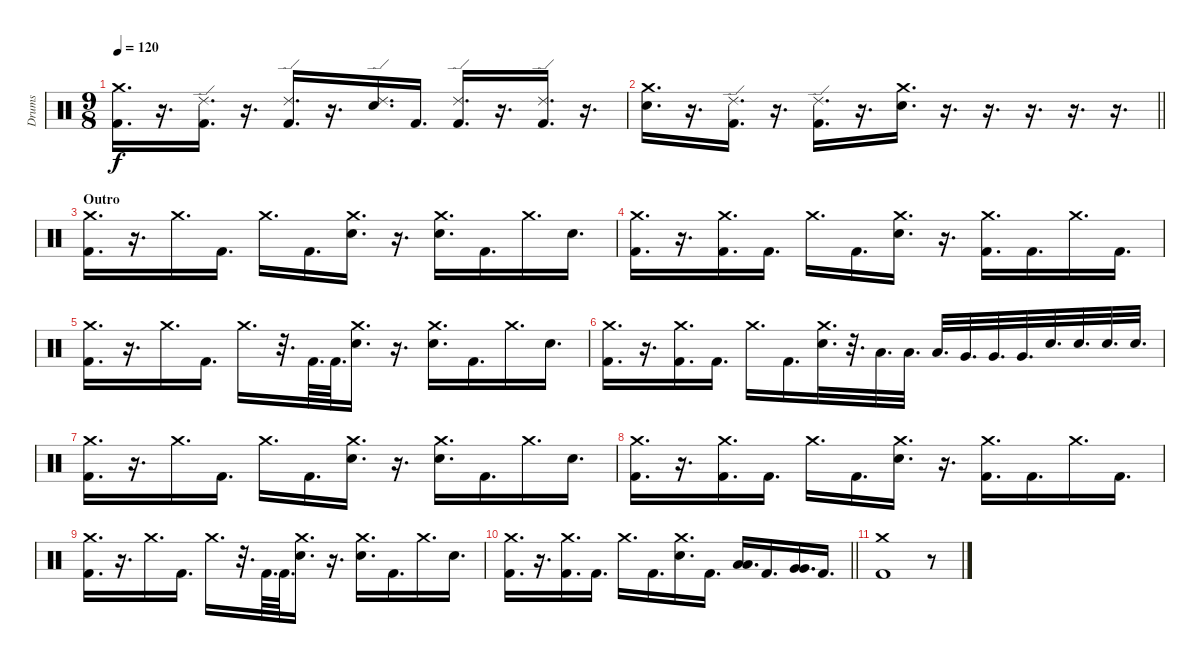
\track ("Drums" "Drums") {instrument percussion}
\staff {score}
\articulation defaults
\ts (9 8)
\tempo 120
\clef neutral
\ks c
("Crash medium (hit)" "Kick (hit) 2").16{d dy f} r.16{d} ("Ride (edge) 2" "Kick (hit) 2").16{d} r.16{d} ("Ride (edge) 2" "Kick (hit) 2").16{d} r.16{d} ("Ride (edge) 2" "Electric Snare (hit)").16{d} "Kick (hit) 2".16{d} ("Ride (edge) 2" "Kick (hit) 2").16{d} r.16{d} ("Ride (edge) 2" "Kick (hit) 2").16{d} r.16{d} |
\barLineRight lightlight
("Crash medium (hit)" "Electric Snare (hit)").16{d} r.16{d} ("Ride (edge) 2" "Kick (hit) 2").16{d} r.16{d} ("Ride (edge) 2" "Kick (hit) 2").16{d} r.16{d} ("Crash medium (hit)" "Electric Snare (hit)").16{d} r.16{d} r.16{d} r.16{d} r.16{d} r.16{d} |
\section ("" "Outro")
("Crash medium (hit)" "Kick (hit) 2").16{d} r.16{d} "Crash medium (hit)".16{d} "Kick (hit) 2".16{d} "Crash medium (hit)".16{d} "Kick (hit) 2".16{d} ("Crash medium (hit)" "Electric Snare (hit)").16{d} r.16{d} ("Crash medium (hit)" "Electric Snare (hit)").16{d} "Kick (hit) 2".16{d} "Crash medium (hit)".16{d} "Electric Snare (hit)".16{d} |
("Crash medium (hit)" "Kick (hit) 2").16{d} r.16{d} ("Crash medium (hit)" "Kick (hit) 2").16{d} "Kick (hit) 2".16{d} "Crash medium (hit)".16{d} "Kick (hit) 2".16{d} ("Crash medium (hit)" "Electric Snare (hit)").16{d} r.16{d} ("Crash medium (hit)" "Kick (hit) 2").16{d} "Kick (hit) 2".16{d} "Crash medium (hit)".16{d} "Kick (hit) 2".16{d} |
("Crash medium (hit)" "Kick (hit) 2").16{d} r.16{d} "Crash medium (hit)".16{d} "Kick (hit) 2".16{d} "Crash medium (hit)".16{d} r.32{d} "Kick (hit) 2".64{d} "Kick (hit) 2".64{d} ("Crash medium (hit)" "Electric Snare (hit)").16{d} r.16{d} ("Crash medium (hit)" "Electric Snare (hit)").16{d} "Kick (hit) 2".16{d} "Crash medium (hit)".16{d} "Electric Snare (hit)".16{d} |
("Crash medium (hit)" "Kick (hit) 2").16{d} r.16{d} ("Crash medium (hit)" "Kick (hit) 2").16{d} "Kick (hit) 2".16{d} "Crash medium (hit)".16{d} "Kick (hit) 2".16{d} ("Crash medium (hit)" "Electric Snare (hit)").32{d} r.32{d} "Low Tom (hit)".32{d} "Low Tom (hit)".32{d} "Low Tom (hit)".32{d} "Very Low Tom (hit)".32{d} "Very Low Tom (hit)".32{d} "Very Low Tom (hit)".32{d} "Electric Snare (hit)".32{d} "Electric Snare (hit)".32{d} "Electric Snare (hit)".32{d} "Electric Snare (hit)".32{d} |
("Crash medium (hit)" "Kick (hit) 2").16{d} r.16{d} "Crash medium (hit)".16{d} "Kick (hit) 2".16{d} "Crash medium (hit)".16{d} "Kick (hit) 2".16{d} ("Crash medium (hit)" "Electric Snare (hit)").16{d} r.16{d} ("Crash medium (hit)" "Electric Snare (hit)").16{d} "Kick (hit) 2".16{d} "Crash medium (hit)".16{d} "Electric Snare (hit)".16{d} |
("Crash medium (hit)" "Kick (hit) 2").16{d} r.16{d} ("Crash medium (hit)" "Kick (hit) 2").16{d} "Kick (hit) 2".16{d} "Crash medium (hit)".16{d} "Kick (hit) 2".16{d} ("Crash medium (hit)" "Electric Snare (hit)").16{d} r.16{d} ("Crash medium (hit)" "Kick (hit) 2").16{d} "Kick (hit) 2".16{d} "Crash medium (hit)".16{d} "Kick (hit) 2".16{d} |
("Crash medium (hit)" "Kick (hit) 2").16{d} r.16{d} "Crash medium (hit)".16{d} "Kick (hit) 2".16{d} "Crash medium (hit)".16{d} r.32{d} "Kick (hit) 2".64{d} "Kick (hit) 2".64{d} ("Crash medium (hit)" "Electric Snare (hit)").16{d} r.16{d} ("Crash medium (hit)" "Electric Snare (hit)").16{d} "Kick (hit) 2".16{d} "Crash medium (hit)".16{d} "Electric Snare (hit)".16{d} |
\barLineRight lightlight
("Crash medium (hit)" "Kick (hit) 2").16{d} r.16{d} ("Crash medium (hit)" "Kick (hit) 2").16{d} "Kick (hit) 2".16{d} "Crash medium (hit)".16{d} "Kick (hit) 2".16{d} ("Crash medium (hit)" "Electric Snare (hit)").16{d} "Kick (hit) 2".16{d} ("Low Tom (hit)" "Low Tom (hit)").16{d} "Kick (hit) 2".16{d} ("Very Low Tom (hit)" "Very Low Tom (hit)").16{d} "Kick (hit) 2".16{d} |
("Crash medium (hit)" "Kick (hit) 2").1 r.8
